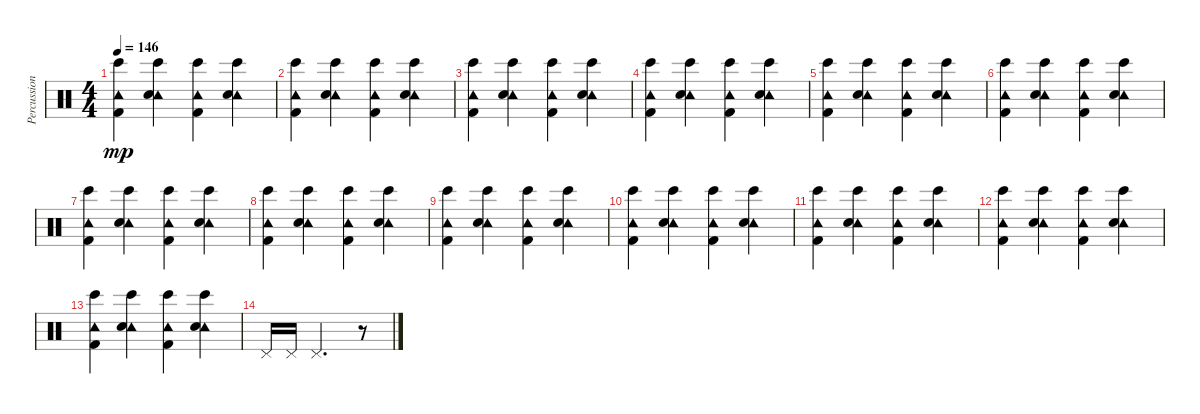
\track ("Percussion" "Percussion") {instrument percussion}
\staff {score}
\articulation defaults
\ts (4 4)
\tempo 146
\clef neutral
\ks c
("Tambourine (hit)" "Kick (hit) 2" "Bongo High (hit)").4{dy mp} ("Tambourine (hit)" "Snare (hit) 2" "Bongo High (hit)").4 ("Tambourine (hit)" "Kick (hit) 2" "Bongo High (hit)").4 ("Tambourine (hit)" "Snare (hit) 2" "Bongo High (hit)").4 |
("Tambourine (hit)" "Kick (hit) 2" "Bongo High (hit)").4 ("Tambourine (hit)" "Snare (hit) 2" "Bongo High (hit)").4 ("Tambourine (hit)" "Kick (hit) 2" "Bongo High (hit)").4 ("Tambourine (hit)" "Snare (hit) 2" "Bongo High (hit)").4 |
("Tambourine (hit)" "Kick (hit) 2" "Bongo High (hit)").4 ("Tambourine (hit)" "Snare (hit) 2" "Bongo High (hit)").4 ("Tambourine (hit)" "Kick (hit) 2" "Bongo High (hit)").4 ("Tambourine (hit)" "Snare (hit) 2" "Bongo High (hit)").4 |
("Tambourine (hit)" "Kick (hit) 2" "Bongo High (hit)").4 ("Tambourine (hit)" "Snare (hit) 2" "Bongo High (hit)").4 ("Tambourine (hit)" "Kick (hit) 2" "Bongo High (hit)").4 ("Tambourine (hit)" "Snare (hit) 2" "Bongo High (hit)").4 |
("Tambourine (hit)" "Kick (hit) 2" "Bongo High (hit)").4 ("Tambourine (hit)" "Snare (hit) 2" "Bongo High (hit)").4 ("Tambourine (hit)" "Kick (hit) 2" "Bongo High (hit)").4 ("Tambourine (hit)" "Snare (hit) 2" "Bongo High (hit)").4 |
("Tambourine (hit)" "Kick (hit) 2" "Bongo High (hit)").4 ("Tambourine (hit)" "Snare (hit) 2" "Bongo High (hit)").4 ("Tambourine (hit)" "Kick (hit) 2" "Bongo High (hit)").4 ("Tambourine (hit)" "Snare (hit) 2" "Bongo High (hit)").4 |
("Tambourine (hit)" "Kick (hit) 2" "Bongo High (hit)").4 ("Tambourine (hit)" "Snare (hit) 2" "Bongo High (hit)").4 ("Tambourine (hit)" "Kick (hit) 2" "Bongo High (hit)").4 ("Tambourine (hit)" "Snare (hit) 2" "Bongo High (hit)").4 |
("Tambourine (hit)" "Kick (hit) 2" "Bongo High (hit)").4 ("Tambourine (hit)" "Snare (hit) 2" "Bongo High (hit)").4 ("Tambourine (hit)" "Kick (hit) 2" "Bongo High (hit)").4 ("Tambourine (hit)" "Snare (hit) 2" "Bongo High (hit)").4 |
("Tambourine (hit)" "Kick (hit) 2" "Bongo High (hit)").4 ("Tambourine (hit)" "Snare (hit) 2" "Bongo High (hit)").4 ("Tambourine (hit)" "Kick (hit) 2" "Bongo High (hit)").4 ("Tambourine (hit)" "Snare (hit) 2" "Bongo High (hit)").4 |
("Tambourine (hit)" "Kick (hit) 2" "Bongo High (hit)").4 ("Tambourine (hit)" "Snare (hit) 2" "Bongo High (hit)").4 ("Tambourine (hit)" "Kick (hit) 2" "Bongo High (hit)").4 ("Tambourine (hit)" "Snare (hit) 2" "Bongo High (hit)").4 |
("Tambourine (hit)" "Kick (hit) 2" "Bongo High (hit)").4 ("Tambourine (hit)" "Snare (hit) 2" "Bongo High (hit)").4 ("Tambourine (hit)" "Kick (hit) 2" "Bongo High (hit)").4 ("Tambourine (hit)" "Snare (hit) 2" "Bongo High (hit)").4 |
("Tambourine (hit)" "Kick (hit) 2" "Bongo High (hit)").4 ("Tambourine (hit)" "Snare (hit) 2" "Bongo High (hit)").4 ("Tambourine (hit)" "Kick (hit) 2" "Bongo High (hit)").4 ("Tambourine (hit)" "Snare (hit) 2" "Bongo High (hit)").4 |
("Tambourine (hit)" "Kick (hit) 2" "Bongo High (hit)").4 ("Tambourine (hit)" "Snare (hit) 2" "Bongo High (hit)").4 ("Tambourine (hit)" "Kick (hit) 2" "Bongo High (hit)").4 ("Tambourine (hit)" "Snare (hit) 2" "Bongo High (hit)").4 |
"Pedal Hi-Hat (hit)".16 "Pedal Hi-Hat (hit)".16 "Pedal Hi-Hat (hit)".2{d} r.8
